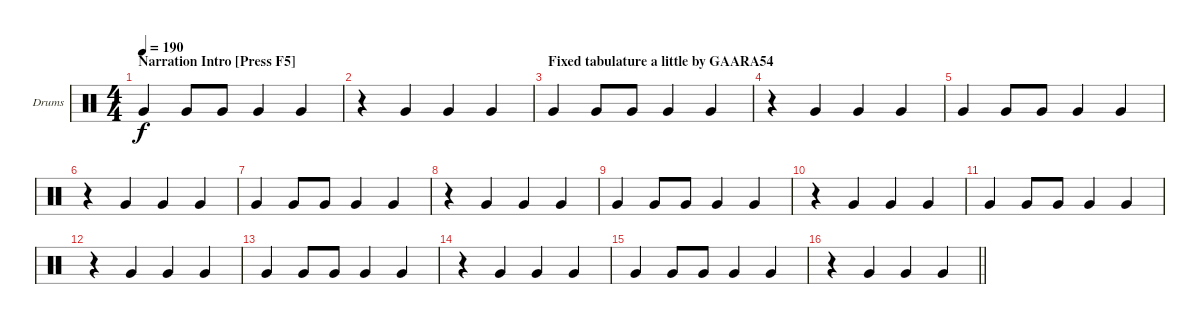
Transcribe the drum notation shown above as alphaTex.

\bracketExtendMode groupsimilarinstruments
\firstSystemTrackNameOrientation horizontal
\otherSystemsTrackNameOrientation horizontal
\track ("Drumkit" "Drums") {instrument percussion}
\staff {score}
\articulation defaults
\ts (4 4)
\beaming (8 2 2 2 2)
\section ("" "Narration Intro [Press F5]")
\tempo 190
\clef neutral
\ks c "Very Low Tom (hit)".4{dy f} "Very Low Tom (hit)".8 "Very Low Tom (hit)".8 "Very Low Tom (hit)".4 "Very Low Tom (hit)".4
|
r.4 "Very Low Tom (hit)".4 "Very Low Tom (hit)".4 "Very Low Tom (hit)".4 |
\section ("" "Fixed tabulature a little by GAARA54")
"Very Low Tom (hit)".4 "Very Low Tom (hit)".8 "Very Low Tom (hit)".8 "Very Low Tom (hit)".4 "Very Low Tom (hit)".4 |
r.4 "Very Low Tom (hit)".4 "Very Low Tom (hit)".4 "Very Low Tom (hit)".4 |
"Very Low Tom (hit)".4 "Very Low Tom (hit)".8 "Very Low Tom (hit)".8 "Very Low Tom (hit)".4 "Very Low Tom (hit)".4 |
r.4 "Very Low Tom (hit)".4 "Very Low Tom (hit)".4 "Very Low Tom (hit)".4 |
"Very Low Tom (hit)".4 "Very Low Tom (hit)".8 "Very Low Tom (hit)".8 "Very Low Tom (hit)".4 "Very Low Tom (hit)".4 |
r.4 "Very Low Tom (hit)".4 "Very Low Tom (hit)".4 "Very Low Tom (hit)".4 |
"Very Low Tom (hit)".4 "Very Low Tom (hit)".8 "Very Low Tom (hit)".8 "Very Low Tom (hit)".4 "Very Low Tom (hit)".4 |
r.4 "Very Low Tom (hit)".4 "Very Low Tom (hit)".4 "Very Low Tom (hit)".4 |
"Very Low Tom (hit)".4 "Very Low Tom (hit)".8 "Very Low Tom (hit)".8 "Very Low Tom (hit)".4 "Very Low Tom (hit)".4 |
r.4 "Very Low Tom (hit)".4 "Very Low Tom (hit)".4 "Very Low Tom (hit)".4 |
"Very Low Tom (hit)".4 "Very Low Tom (hit)".8 "Very Low Tom (hit)".8 "Very Low Tom (hit)".4 "Very Low Tom (hit)".4 |
r.4 "Very Low Tom (hit)".4 "Very Low Tom (hit)".4 "Very Low Tom (hit)".4 |
"Very Low Tom (hit)".4 "Very Low Tom (hit)".8 "Very Low Tom (hit)".8 "Very Low Tom (hit)".4 "Very Low Tom (hit)".4 |
\barLineRight lightlight
r.4 "Very Low Tom (hit)".4 "Very Low Tom (hit)".4 "Very Low Tom (hit)".4
